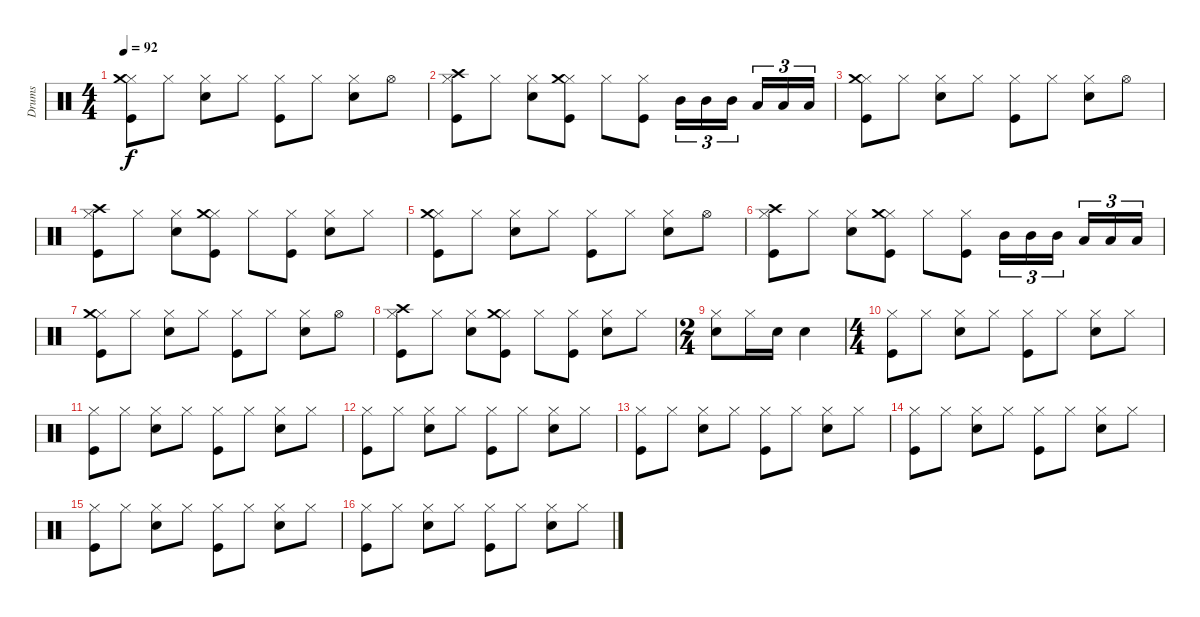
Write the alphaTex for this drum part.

\track ("Drums" "Drums") {instrument percussion}
\staff {score}
\articulation defaults
\ts (4 4)
\tempo 92
\clef neutral
\ks c
("Kick (hit)" "Hi-Hat (closed)" "Crash medium (hit)").8{dy f} "Hi-Hat (closed)".8 ("Electric Snare (hit)" "Hi-Hat (closed)").8 "Hi-Hat (closed)".8 ("Kick (hit)" "Hi-Hat (closed)").8 "Hi-Hat (closed)".8 ("Electric Snare (hit)" "Hi-Hat (closed)").8 "Hi-Hat (open)".8 |
("Kick (hit)" "Hi-Hat (closed)" "Crash high (hit)").8 "Hi-Hat (closed)".8 ("Electric Snare (hit)" "Hi-Hat (closed)").8 ("Kick (hit)" "Hi-Hat (closed)" "Crash medium (hit)").8 "Hi-Hat (closed)".8 ("Kick (hit)" "Hi-Hat (closed)").8 "Mid Tom (hit)".16{tu (3 2)} "Mid Tom (hit)".16{tu (3 2)} "Mid Tom (hit)".16{tu (3 2)} "Low Tom (hit)".16{tu (3 2)} "Low Tom (hit)".16{tu (3 2)} "Low Tom (hit)".16{tu (3 2)} |
("Kick (hit)" "Hi-Hat (closed)" "Crash medium (hit)").8 "Hi-Hat (closed)".8 ("Electric Snare (hit)" "Hi-Hat (closed)").8 "Hi-Hat (closed)".8 ("Kick (hit)" "Hi-Hat (closed)").8 "Hi-Hat (closed)".8 ("Electric Snare (hit)" "Hi-Hat (closed)").8 "Hi-Hat (open)".8 |
("Kick (hit)" "Hi-Hat (closed)" "Crash high (hit)").8 "Hi-Hat (closed)".8 ("Electric Snare (hit)" "Hi-Hat (closed)").8 ("Kick (hit)" "Hi-Hat (closed)" "Crash medium (hit)").8 "Hi-Hat (closed)".8 ("Kick (hit)" "Hi-Hat (closed)").8 ("Electric Snare (hit)" "Hi-Hat (closed)").8 "Hi-Hat (closed)".8 |
("Kick (hit)" "Hi-Hat (closed)" "Crash medium (hit)").8 "Hi-Hat (closed)".8 ("Electric Snare (hit)" "Hi-Hat (closed)").8 "Hi-Hat (closed)".8 ("Kick (hit)" "Hi-Hat (closed)").8 "Hi-Hat (closed)".8 ("Electric Snare (hit)" "Hi-Hat (closed)").8 "Hi-Hat (open)".8 |
("Kick (hit)" "Hi-Hat (closed)" "Crash high (hit)").8 "Hi-Hat (closed)".8 ("Electric Snare (hit)" "Hi-Hat (closed)").8 ("Kick (hit)" "Hi-Hat (closed)" "Crash medium (hit)").8 "Hi-Hat (closed)".8 ("Kick (hit)" "Hi-Hat (closed)").8 "Mid Tom (hit)".16{tu (3 2)} "Mid Tom (hit)".16{tu (3 2)} "Mid Tom (hit)".16{tu (3 2)} "Low Tom (hit)".16{tu (3 2)} "Low Tom (hit)".16{tu (3 2)} "Low Tom (hit)".16{tu (3 2)} |
("Kick (hit)" "Hi-Hat (closed)" "Crash medium (hit)").8 "Hi-Hat (closed)".8 ("Electric Snare (hit)" "Hi-Hat (closed)").8 "Hi-Hat (closed)".8 ("Kick (hit)" "Hi-Hat (closed)").8 "Hi-Hat (closed)".8 ("Electric Snare (hit)" "Hi-Hat (closed)").8 "Hi-Hat (open)".8 |
("Kick (hit)" "Hi-Hat (closed)" "Crash high (hit)").8 "Hi-Hat (closed)".8 ("Electric Snare (hit)" "Hi-Hat (closed)").8 ("Kick (hit)" "Hi-Hat (closed)" "Crash medium (hit)").8 "Hi-Hat (closed)".8 ("Kick (hit)" "Hi-Hat (closed)").8 ("Electric Snare (hit)" "Hi-Hat (closed)").8 "Hi-Hat (closed)".8 |
\ts (2 4)
("Electric Snare (hit)" "Hi-Hat (closed)").8 "Hi-Hat (closed)".16 "Electric Snare (hit)".16 "Electric Snare (hit)".4 |
\ts (4 4)
("Kick (hit)" "Hi-Hat (closed)").8 "Hi-Hat (closed)".8 ("Electric Snare (hit)" "Hi-Hat (closed)").8 "Hi-Hat (closed)".8 ("Kick (hit)" "Hi-Hat (closed)").8 "Hi-Hat (closed)".8 ("Electric Snare (hit)" "Hi-Hat (closed)").8 "Hi-Hat (closed)".8 |
("Kick (hit)" "Hi-Hat (closed)").8 "Hi-Hat (closed)".8 ("Electric Snare (hit)" "Hi-Hat (closed)").8 "Hi-Hat (closed)".8 ("Kick (hit)" "Hi-Hat (closed)").8 "Hi-Hat (closed)".8 ("Electric Snare (hit)" "Hi-Hat (closed)").8 "Hi-Hat (closed)".8 |
("Kick (hit)" "Hi-Hat (closed)").8 "Hi-Hat (closed)".8 ("Electric Snare (hit)" "Hi-Hat (closed)").8 "Hi-Hat (closed)".8 ("Kick (hit)" "Hi-Hat (closed)").8 "Hi-Hat (closed)".8 ("Electric Snare (hit)" "Hi-Hat (closed)").8 "Hi-Hat (closed)".8 |
("Kick (hit)" "Hi-Hat (closed)").8 "Hi-Hat (closed)".8 ("Electric Snare (hit)" "Hi-Hat (closed)").8 "Hi-Hat (closed)".8 ("Kick (hit)" "Hi-Hat (closed)").8 "Hi-Hat (closed)".8 ("Electric Snare (hit)" "Hi-Hat (closed)").8 "Hi-Hat (closed)".8 |
("Kick (hit)" "Hi-Hat (closed)").8 "Hi-Hat (closed)".8 ("Electric Snare (hit)" "Hi-Hat (closed)").8 "Hi-Hat (closed)".8 ("Kick (hit)" "Hi-Hat (closed)").8 "Hi-Hat (closed)".8 ("Electric Snare (hit)" "Hi-Hat (closed)").8 "Hi-Hat (closed)".8 |
("Kick (hit)" "Hi-Hat (closed)").8 "Hi-Hat (closed)".8 ("Electric Snare (hit)" "Hi-Hat (closed)").8 "Hi-Hat (closed)".8 ("Kick (hit)" "Hi-Hat (closed)").8 "Hi-Hat (closed)".8 ("Electric Snare (hit)" "Hi-Hat (closed)").8 "Hi-Hat (closed)".8 |
("Kick (hit)" "Hi-Hat (closed)").8 "Hi-Hat (closed)".8 ("Electric Snare (hit)" "Hi-Hat (closed)").8 "Hi-Hat (closed)".8 ("Kick (hit)" "Hi-Hat (closed)").8 "Hi-Hat (closed)".8 ("Electric Snare (hit)" "Hi-Hat (closed)").8 "Hi-Hat (closed)".8
